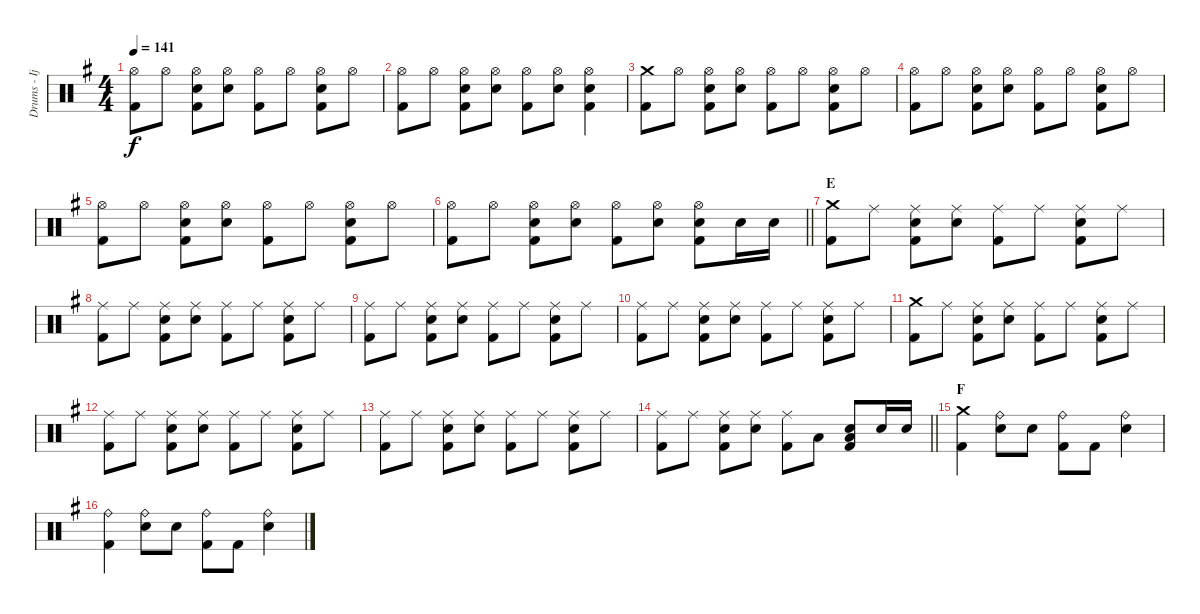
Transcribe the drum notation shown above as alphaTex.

\track ("Drums - Ijichi Kiyoshi" "Drums - Ij") {instrument percussion}
\staff {score}
\articulation defaults
\ts (4 4)
\tempo 141
\clef neutral
\ks g
("Hi-Hat (open)" "Kick (hit) 2").8{dy f} "Hi-Hat (open)".8 ("Hi-Hat (open)" "Electric Snare (hit)" "Kick (hit) 2").8 ("Hi-Hat (open)" "Electric Snare (hit)").8 ("Hi-Hat (open)" "Kick (hit) 2").8 "Hi-Hat (open)".8 ("Hi-Hat (open)" "Electric Snare (hit)" "Kick (hit) 2").8 "Hi-Hat (open)".8 |
("Hi-Hat (open)" "Kick (hit) 2").8 "Hi-Hat (open)".8 ("Hi-Hat (open)" "Electric Snare (hit)" "Kick (hit) 2").8 ("Hi-Hat (open)" "Electric Snare (hit)").8 ("Hi-Hat (open)" "Kick (hit) 2").8 ("Hi-Hat (open)" "Electric Snare (hit)").8 ("Hi-Hat (open)" "Electric Snare (hit)" "Kick (hit) 2").4 |
("Crash medium (hit)" "Kick (hit) 2").8 "Hi-Hat (open)".8 ("Hi-Hat (open)" "Electric Snare (hit)" "Kick (hit) 2").8 ("Hi-Hat (open)" "Electric Snare (hit)").8 ("Hi-Hat (open)" "Kick (hit) 2").8 "Hi-Hat (open)".8 ("Hi-Hat (open)" "Electric Snare (hit)" "Kick (hit) 2").8 "Hi-Hat (open)".8 |
("Hi-Hat (open)" "Kick (hit) 2").8 "Hi-Hat (open)".8 ("Hi-Hat (open)" "Electric Snare (hit)" "Kick (hit) 2").8 ("Hi-Hat (open)" "Electric Snare (hit)").8 ("Hi-Hat (open)" "Kick (hit) 2").8 "Hi-Hat (open)".8 ("Hi-Hat (open)" "Electric Snare (hit)" "Kick (hit) 2").8 "Hi-Hat (open)".8 |
("Hi-Hat (open)" "Kick (hit) 2").8 "Hi-Hat (open)".8 ("Hi-Hat (open)" "Electric Snare (hit)" "Kick (hit) 2").8 ("Hi-Hat (open)" "Electric Snare (hit)").8 ("Hi-Hat (open)" "Kick (hit) 2").8 "Hi-Hat (open)".8 ("Hi-Hat (open)" "Electric Snare (hit)" "Kick (hit) 2").8 "Hi-Hat (open)".8 |
\barLineRight lightlight
("Hi-Hat (open)" "Kick (hit) 2").8 "Hi-Hat (open)".8 ("Hi-Hat (open)" "Electric Snare (hit)" "Kick (hit) 2").8 ("Hi-Hat (open)" "Electric Snare (hit)").8 ("Hi-Hat (open)" "Kick (hit) 2").8 ("Hi-Hat (open)" "Electric Snare (hit)").8 ("Hi-Hat (open)" "Electric Snare (hit)" "Kick (hit) 2").8 "Electric Snare (hit)".16 "Electric Snare (hit)".16 |
\section ("" "E")
("Crash medium (hit)" "Kick (hit) 2").8 "Ride (middle)".8 ("Ride (middle)" "Electric Snare (hit)" "Kick (hit) 2").8 ("Ride (middle)" "Electric Snare (hit)").8 ("Ride (middle)" "Kick (hit) 2").8 "Ride (middle)".8 ("Ride (middle)" "Electric Snare (hit)" "Kick (hit) 2").8 "Ride (middle)".8 |
("Ride (middle)" "Kick (hit) 2").8 "Ride (middle)".8 ("Ride (middle)" "Electric Snare (hit)" "Kick (hit) 2").8 ("Ride (middle)" "Electric Snare (hit)").8 ("Ride (middle)" "Kick (hit) 2").8 "Ride (middle)".8 ("Ride (middle)" "Electric Snare (hit)" "Kick (hit) 2").8 "Ride (middle)".8 |
("Ride (middle)" "Kick (hit) 2").8 "Ride (middle)".8 ("Ride (middle)" "Electric Snare (hit)" "Kick (hit) 2").8 ("Ride (middle)" "Electric Snare (hit)").8 ("Ride (middle)" "Kick (hit) 2").8 "Ride (middle)".8 ("Ride (middle)" "Electric Snare (hit)" "Kick (hit) 2").8 "Ride (middle)".8 |
("Ride (middle)" "Kick (hit) 2").8 "Ride (middle)".8 ("Ride (middle)" "Electric Snare (hit)" "Kick (hit) 2").8 ("Ride (middle)" "Electric Snare (hit)").8 ("Ride (middle)" "Kick (hit) 2").8 "Ride (middle)".8 ("Ride (middle)" "Electric Snare (hit)" "Kick (hit) 2").8 "Ride (middle)".8 |
("Crash medium (hit)" "Kick (hit) 2").8 "Ride (middle)".8 ("Ride (middle)" "Electric Snare (hit)" "Kick (hit) 2").8 ("Ride (middle)" "Electric Snare (hit)").8 ("Ride (middle)" "Kick (hit) 2").8 "Ride (middle)".8 ("Ride (middle)" "Electric Snare (hit)" "Kick (hit) 2").8 "Ride (middle)".8 |
("Ride (middle)" "Kick (hit) 2").8 "Ride (middle)".8 ("Ride (middle)" "Electric Snare (hit)" "Kick (hit) 2").8 ("Ride (middle)" "Electric Snare (hit)").8 ("Ride (middle)" "Kick (hit) 2").8 "Ride (middle)".8 ("Ride (middle)" "Electric Snare (hit)" "Kick (hit) 2").8 "Ride (middle)".8 |
("Ride (middle)" "Kick (hit) 2").8 "Ride (middle)".8 ("Ride (middle)" "Electric Snare (hit)" "Kick (hit) 2").8 ("Ride (middle)" "Electric Snare (hit)").8 ("Ride (middle)" "Kick (hit) 2").8 "Ride (middle)".8 ("Ride (middle)" "Electric Snare (hit)" "Kick (hit) 2").8 "Ride (middle)".8 |
\barLineRight lightlight
("Ride (middle)" "Kick (hit) 2").8 "Ride (middle)".8 ("Ride (middle)" "Electric Snare (hit)" "Kick (hit) 2").8 ("Ride (middle)" "Electric Snare (hit)").8 ("Ride (middle)" "Kick (hit) 2").8 "Low Tom (hit)".8 ("Low Tom (hit)" "Electric Snare (hit)" "Kick (hit) 2").8 "Electric Snare (hit)".16 "Electric Snare (hit)".16 |
\section ("" "F")
("Crash medium (hit)" "Kick (hit) 2").4 ("Ride (bell)" "Electric Snare (hit)").8 "Electric Snare (hit)".8 ("Ride (bell)" "Kick (hit) 2").8 "Kick (hit) 2".8 ("Ride (bell)" "Electric Snare (hit)").4 |
("Ride (bell)" "Kick (hit) 2").4 ("Ride (bell)" "Electric Snare (hit)").8 "Electric Snare (hit)".8 ("Ride (bell)" "Kick (hit) 2").8 "Kick (hit) 2".8 ("Ride (bell)" "Electric Snare (hit)").4
